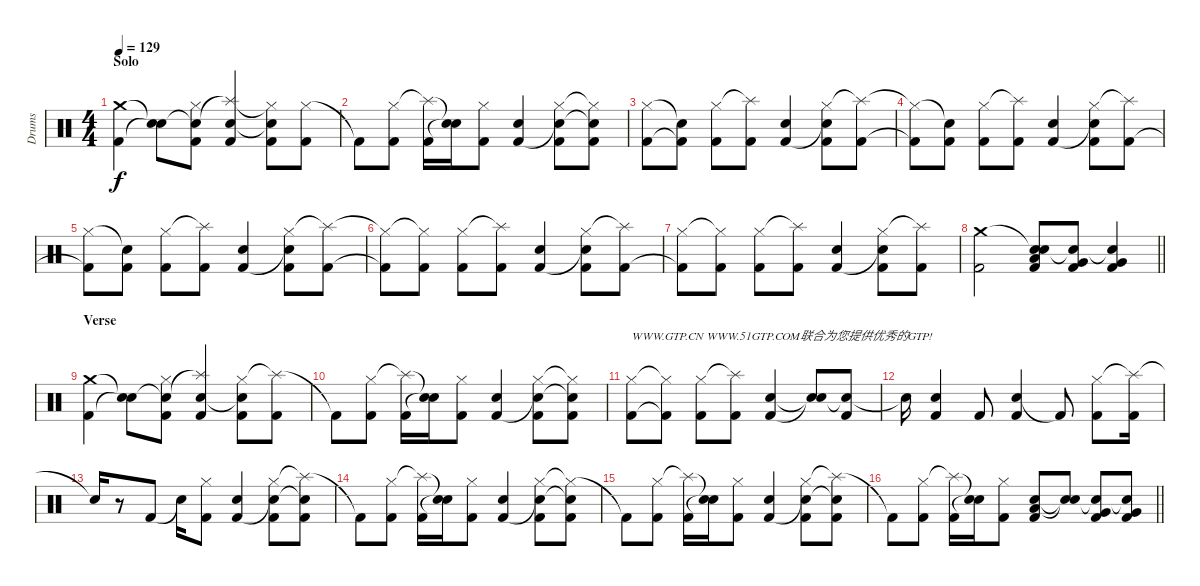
\track ("Drums" "Drums") {instrument percussion}
\staff {score}
\articulation defaults
\ts (4 4)
\section ("" "Solo")
\tempo 129
\clef neutral
\ks c
("Crash medium (hit)" "Kick (hit) 2").4{dy f} ("Snare (hit)"{t} "Snare (hit)"{t}).8 ("Snare (hit)"{t} "Hi-Hat (closed)" "Kick (hit) 2").8 ("Splash (hit)"{t} "Electric Snare (hit)" "Kick (hit) 2").4 ("Hi-Hat (closed)"{t} "Snare (hit)"{t} "Kick (hit) 2").8 ("Hi-Hat (closed)" "Kick (hit) 2").8 |
"Kick (hit) 2"{t}.8 ("Hi-Hat (closed)" "Kick (hit) 2").8 ("Splash (hit)"{t} "Kick (hit) 2").16 ("Snare (hit)"{t} "Snare (hit)"{t}).16 ("Hi-Hat (closed)" "Kick (hit) 2").8 ("Electric Snare (hit)" "Kick (hit) 2").4 ("Hi-Hat (closed)" "Snare (hit)"{t} "Kick (hit) 2").8 ("Hi-Hat (closed)"{t} "Snare (hit)"{t} "Kick (hit) 2").8 |
("Hi-Hat (closed)" "Kick (hit) 2").8 ("Snare (hit)"{t} "Kick (hit) 2"{t}).8 ("Hi-Hat (closed)" "Kick (hit) 2").8 ("Splash (hit)"{t} "Kick (hit) 2").8 ("Electric Snare (hit)" "Kick (hit) 2").4 ("Hi-Hat (closed)" "Snare (hit)"{t} "Kick (hit) 2").8 ("Splash (hit)"{t} "Kick (hit) 2").8 |
("Hi-Hat (closed)"{t} "Kick (hit) 2"{t}).8 ("Snare (hit)"{t} "Kick (hit) 2").8 ("Hi-Hat (closed)" "Kick (hit) 2").8 ("Splash (hit)"{t} "Kick (hit) 2").8 ("Electric Snare (hit)" "Kick (hit) 2").4 ("Hi-Hat (closed)" "Snare (hit)"{t} "Kick (hit) 2").8 ("Splash (hit)"{t} "Kick (hit) 2").8 |
("Hi-Hat (closed)" "Kick (hit) 2"{t}).8 ("Snare (hit)"{t} "Kick (hit) 2").8 ("Hi-Hat (closed)" "Kick (hit) 2").8 ("Splash (hit)"{t} "Kick (hit) 2").8 ("Electric Snare (hit)" "Kick (hit) 2").4 ("Hi-Hat (closed)" "Snare (hit)"{t} "Kick (hit) 2").8 ("Splash (hit)"{t} "Kick (hit) 2").8 |
("Hi-Hat (closed)"{t} "Kick (hit) 2"{t}).8 ("Hi-Hat (closed)"{t} "Kick (hit) 2").8 ("Hi-Hat (closed)" "Kick (hit) 2").8 ("Splash (hit)"{t} "Kick (hit) 2").8 ("Electric Snare (hit)" "Kick (hit) 2").4 ("Hi-Hat (closed)" "Snare (hit)"{t} "Kick (hit) 2").8 ("Splash (hit)"{t} "Kick (hit) 2").8 |
("Hi-Hat (closed)" "Kick (hit) 2"{t}).8 ("Hi-Hat (closed)"{t} "Kick (hit) 2").8 ("Hi-Hat (closed)" "Kick (hit) 2").8 ("Splash (hit)"{t} "Kick (hit) 2").8 ("Electric Snare (hit)" "Kick (hit) 2").4 ("Hi-Hat (closed)" "Snare (hit)"{t} "Kick (hit) 2").8 ("Splash (hit)"{t} "Kick (hit) 2").8 |
\barLineRight lightlight
("Crash medium (hit)" "Kick (hit) 2").2 ("Snare (hit)"{t} "Low Tom (hit)" "Electric Snare (hit)" "Kick (hit) 2").8 ("Snare (hit)"{t} "Very Low Tom (hit)" "Kick (hit) 2").8 ("Snare (hit)"{t} "Very Low Tom (hit)" "Kick (hit) 2").4 |
\section ("" "Verse")
("Crash medium (hit)" "Kick (hit) 2").4 ("Snare (hit)"{t} "Snare (hit)"{t}).8 ("Snare (hit)"{t} "Hi-Hat (closed)" "Kick (hit) 2").8 ("Splash (hit)"{t} "Electric Snare (hit)" "Kick (hit) 2").4 ("Hi-Hat (closed)" "Snare (hit)"{t} "Kick (hit) 2").8 ("Splash (hit)"{t} "Kick (hit) 2").8 |
"Kick (hit) 2"{t}.8 ("Hi-Hat (closed)" "Kick (hit) 2").8 ("Splash (hit)"{t} "Kick (hit) 2").16 ("Snare (hit)"{t} "Snare (hit)"{t}).16 ("Hi-Hat (closed)" "Kick (hit) 2").8 ("Electric Snare (hit)" "Kick (hit) 2").4 ("Hi-Hat (closed)" "Snare (hit)"{t} "Kick (hit) 2").8 ("Hi-Hat (closed)"{t} "Snare (hit)"{t} "Kick (hit) 2").8 |
("Hi-Hat (closed)" "Kick (hit) 2").8{txt "WWW.GTP.CN WWW.51GTP.COM联合为您提供优秀的GTP!"} ("Hi-Hat (closed)"{t} "Kick (hit) 2"{t}).8 ("Hi-Hat (closed)" "Kick (hit) 2").8 ("Splash (hit)"{t} "Kick (hit) 2").8 ("Electric Snare (hit)" "Kick (hit) 2").4 ("Snare (hit)"{t} "Snare (hit)"{t}).8 ("Snare (hit)"{t} "Kick (hit) 2").8 |
"Snare (hit)"{t}.16 ("Electric Snare (hit)" "Kick (hit) 2").4 "Kick (hit) 2".8 ("Electric Snare (hit)" "Kick (hit) 2").4 "Kick (hit) 2"{t}.8 ("Hi-Hat (closed)" "Kick (hit) 2").8 ("Splash (hit)"{t} "Kick (hit) 2").16 |
"Snare (hit)"{t}.16 r.8 "Kick (hit) 2".8 "Snare (hit)"{t}.16 ("Hi-Hat (closed)" "Kick (hit) 2").8 ("Electric Snare (hit)" "Kick (hit) 2").4 ("Hi-Hat (closed)" "Snare (hit)"{t} "Kick (hit) 2").8 ("Splash (hit)"{t} "Snare (hit)"{t} "Kick (hit) 2").8 |
"Kick (hit) 2"{t}.8 ("Hi-Hat (closed)" "Kick (hit) 2").8 ("Splash (hit)"{t} "Kick (hit) 2").16 ("Snare (hit)"{t} "Snare (hit)"{t}).16 ("Hi-Hat (closed)" "Kick (hit) 2").8 ("Electric Snare (hit)" "Kick (hit) 2").4 ("Hi-Hat (closed)" "Snare (hit)"{t} "Kick (hit) 2").8 ("Hi-Hat (closed)"{t} "Snare (hit)"{t} "Kick (hit) 2").8 |
"Kick (hit) 2"{t}.8 ("Hi-Hat (closed)" "Kick (hit) 2").8 ("Splash (hit)"{t} "Kick (hit) 2").16 ("Snare (hit)"{t} "Snare (hit)"{t}).16 ("Hi-Hat (closed)" "Kick (hit) 2").8 ("Electric Snare (hit)" "Kick (hit) 2").4 ("Hi-Hat (closed)" "Snare (hit)"{t} "Kick (hit) 2").8 ("Splash (hit)"{t} "Snare (hit)"{t} "Kick (hit) 2").8 |
\barLineRight lightlight "Kick (hit) 2"{t}.8
("Hi-Hat (closed)" "Kick (hit) 2").8 ("Splash (hit)"{t} "Kick (hit) 2").16 ("Snare (hit)"{t} "Snare (hit)"{t}).16 ("Hi-Hat (closed)" "Kick (hit) 2").8 ("Low Tom (hit)" "Electric Snare (hit)" "Kick (hit) 2").8 ("Snare (hit)"{t} "Snare (hit)"{t}).8 ("Very Low Tom (hit)" "Snare (hit)"{t} "Kick (hit) 2").8 ("Very Low Tom (hit)" "Electric Snare (hit)"{t} "Kick (hit) 2").8
